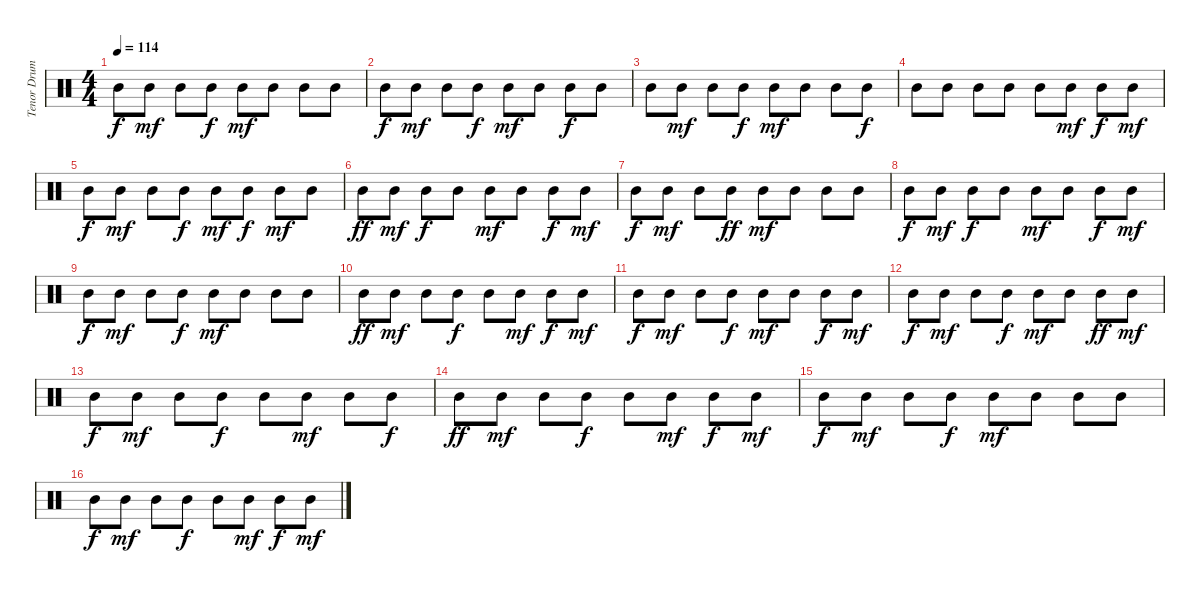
\track ("Tenor Drum" "Tenor Drum") {instrument percussion}
\staff {score}
\articulation defaults
\ts (4 4)
\tempo 114
\clef neutral
\ks c "Mid Tom (hit)".8{dy f} "Mid Tom (hit)".8{dy mf} "Mid Tom (hit)".8 "Mid Tom (hit)".8{dy f} "Mid Tom (hit)".8{dy mf} "Mid Tom (hit)".8 "Mid Tom (hit)".8 "Mid Tom (hit)".8
|
"Mid Tom (hit)".8{dy f} "Mid Tom (hit)".8{dy mf} "Mid Tom (hit)".8 "Mid Tom (hit)".8{dy f} "Mid Tom (hit)".8{dy mf} "Mid Tom (hit)".8 "Mid Tom (hit)".8{dy f} "Mid Tom (hit)".8 |
"Mid Tom (hit)".8 "Mid Tom (hit)".8{dy mf} "Mid Tom (hit)".8 "Mid Tom (hit)".8{dy f} "Mid Tom (hit)".8{dy mf} "Mid Tom (hit)".8 "Mid Tom (hit)".8 "Mid Tom (hit)".8{dy f} |
"Mid Tom (hit)".8 "Mid Tom (hit)".8 "Mid Tom (hit)".8 "Mid Tom (hit)".8 "Mid Tom (hit)".8 "Mid Tom (hit)".8{dy mf} "Mid Tom (hit)".8{dy f} "Mid Tom (hit)".8{dy mf} |
"Mid Tom (hit)".8{dy f} "Mid Tom (hit)".8{dy mf} "Mid Tom (hit)".8 "Mid Tom (hit)".8{dy f} "Mid Tom (hit)".8{dy mf} "Mid Tom (hit)".8{dy f} "Mid Tom (hit)".8{dy mf} "Mid Tom (hit)".8 |
"Mid Tom (hit)".8{dy ff} "Mid Tom (hit)".8{dy mf} "Mid Tom (hit)".8{dy f} "Mid Tom (hit)".8 "Mid Tom (hit)".8{dy mf} "Mid Tom (hit)".8 "Mid Tom (hit)".8{dy f} "Mid Tom (hit)".8{dy mf} |
"Mid Tom (hit)".8{dy f} "Mid Tom (hit)".8{dy mf} "Mid Tom (hit)".8 "Mid Tom (hit)".8{dy ff} "Mid Tom (hit)".8{dy mf} "Mid Tom (hit)".8 "Mid Tom (hit)".8 "Mid Tom (hit)".8 |
"Mid Tom (hit)".8{dy f} "Mid Tom (hit)".8{dy mf} "Mid Tom (hit)".8{dy f} "Mid Tom (hit)".8 "Mid Tom (hit)".8{dy mf} "Mid Tom (hit)".8 "Mid Tom (hit)".8{dy f} "Mid Tom (hit)".8{dy mf} |
"Mid Tom (hit)".8{dy f} "Mid Tom (hit)".8{dy mf} "Mid Tom (hit)".8 "Mid Tom (hit)".8{dy f} "Mid Tom (hit)".8{dy mf} "Mid Tom (hit)".8 "Mid Tom (hit)".8 "Mid Tom (hit)".8 |
"Mid Tom (hit)".8{dy ff} "Mid Tom (hit)".8{dy mf} "Mid Tom (hit)".8 "Mid Tom (hit)".8{dy f} "Mid Tom (hit)".8 "Mid Tom (hit)".8{dy mf} "Mid Tom (hit)".8{dy f} "Mid Tom (hit)".8{dy mf} |
"Mid Tom (hit)".8{dy f} "Mid Tom (hit)".8{dy mf} "Mid Tom (hit)".8 "Mid Tom (hit)".8{dy f} "Mid Tom (hit)".8{dy mf} "Mid Tom (hit)".8 "Mid Tom (hit)".8{dy f} "Mid Tom (hit)".8{dy mf} |
"Mid Tom (hit)".8{dy f} "Mid Tom (hit)".8{dy mf} "Mid Tom (hit)".8 "Mid Tom (hit)".8{dy f} "Mid Tom (hit)".8{dy mf} "Mid Tom (hit)".8 "Mid Tom (hit)".8{dy ff} "Mid Tom (hit)".8{dy mf} |
"Mid Tom (hit)".8{dy f} "Mid Tom (hit)".8{dy mf} "Mid Tom (hit)".8 "Mid Tom (hit)".8{dy f} "Mid Tom (hit)".8 "Mid Tom (hit)".8{dy mf} "Mid Tom (hit)".8 "Mid Tom (hit)".8{dy f} |
"Mid Tom (hit)".8{dy ff} "Mid Tom (hit)".8{dy mf} "Mid Tom (hit)".8 "Mid Tom (hit)".8{dy f} "Mid Tom (hit)".8 "Mid Tom (hit)".8{dy mf} "Mid Tom (hit)".8{dy f} "Mid Tom (hit)".8{dy mf} |
"Mid Tom (hit)".8{dy f} "Mid Tom (hit)".8{dy mf} "Mid Tom (hit)".8 "Mid Tom (hit)".8{dy f} "Mid Tom (hit)".8{dy mf} "Mid Tom (hit)".8 "Mid Tom (hit)".8 "Mid Tom (hit)".8 |
"Mid Tom (hit)".8{dy f} "Mid Tom (hit)".8{dy mf} "Mid Tom (hit)".8 "Mid Tom (hit)".8{dy f} "Mid Tom (hit)".8 "Mid Tom (hit)".8{dy mf} "Mid Tom (hit)".8{dy f} "Mid Tom (hit)".8{dy mf}
